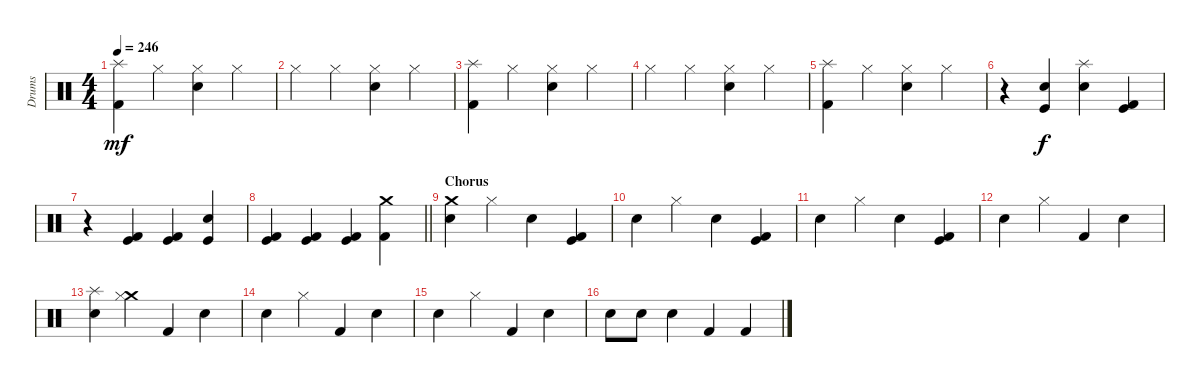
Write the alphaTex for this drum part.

\track ("Drums" "Drums") {instrument percussion}
\staff {score}
\articulation defaults
\ts (4 4)
\tempo 246
\clef neutral
\ks c
("Splash (hit)" "Kick (hit) 2").4{dy mf} "Hi-Hat (closed)".4 ("Hi-Hat (closed)" "Snare (hit) 2").4 "Hi-Hat (closed)".4 |
"Hi-Hat (closed)".4 "Hi-Hat (closed)".4 ("Hi-Hat (closed)" "Snare (hit) 2").4 "Hi-Hat (closed)".4 |
("Splash (hit)" "Kick (hit) 2").4 "Hi-Hat (closed)".4 ("Hi-Hat (closed)" "Snare (hit) 2").4 "Hi-Hat (closed)".4 |
"Hi-Hat (closed)".4 "Hi-Hat (closed)".4 ("Hi-Hat (closed)" "Snare (hit) 2").4 "Hi-Hat (closed)".4 |
("Splash (hit)" "Kick (hit) 2").4 "Hi-Hat (closed)".4 ("Hi-Hat (closed)" "Snare (hit) 2").4 "Hi-Hat (closed)".4 |
r.4 ("Kick (hit)" "Snare (hit) 2").4{dy f} ("Splash (hit)" "Snare (hit) 2").4 ("Kick (hit)" "Kick (hit) 2").4 |
r.4 ("Kick (hit)" "Kick (hit) 2").4 ("Kick (hit)" "Kick (hit) 2").4 ("Kick (hit)" "Electric Snare (hit)").4 |
\barLineRight lightlight
("Kick (hit)" "Kick (hit) 2").4 ("Kick (hit)" "Kick (hit) 2").4 ("Kick (hit)" "Kick (hit) 2").4 ("Crash medium (hit)" "Kick (hit) 2").4 |
\section ("" "Chorus")
("Crash medium (hit)" "Snare (hit) 2").4 "Hi-Hat (closed)".4 "Snare (hit) 2".4 ("Kick (hit)" "Kick (hit) 2").4 |
"Snare (hit) 2".4 "Hi-Hat (closed)".4 "Snare (hit) 2".4 ("Kick (hit)" "Kick (hit) 2").4 |
"Snare (hit) 2".4 "Hi-Hat (closed)".4 "Snare (hit) 2".4 ("Kick (hit)" "Kick (hit) 2").4 |
"Snare (hit) 2".4 "Hi-Hat (closed)".4 "Kick (hit) 2".4 "Snare (hit) 2".4 |
("Splash (hit)" "Snare (hit) 2").4 ("Crash medium (hit)" "Hi-Hat (closed)").4 "Kick (hit) 2".4 "Snare (hit) 2".4 |
"Snare (hit) 2".4 "Hi-Hat (closed)".4 "Kick (hit) 2".4 "Snare (hit) 2".4 |
"Snare (hit) 2".4 "Hi-Hat (closed)".4 "Kick (hit) 2".4 "Snare (hit) 2".4 |
"Electric Snare (hit)".8 "Electric Snare (hit)".8 "Electric Snare (hit)".4 "Kick (hit) 2".4 "Kick (hit) 2".4
